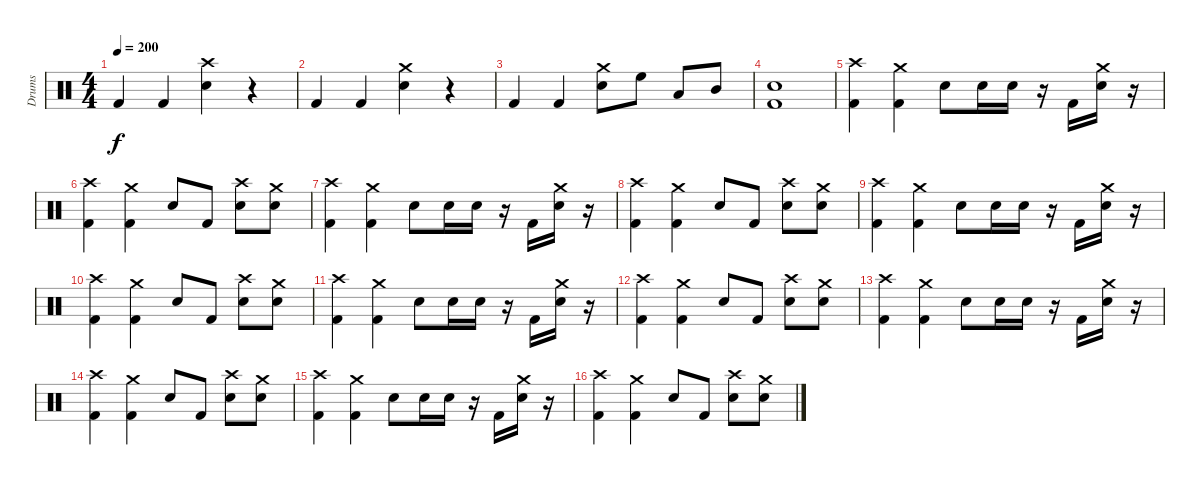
\track ("Drums" "Drums") {instrument percussion}
\staff {score}
\articulation defaults
\ts (4 4)
\tempo 200
\clef neutral
\ks c "Kick (hit) 2".4{dy f} "Kick (hit) 2".4
("Electric Snare (hit)" "Crash high (hit)").4 r.4 |
"Kick (hit) 2".4 "Kick (hit) 2".4 ("Electric Snare (hit)" "Crash medium (hit)").4 r.4 |
"Kick (hit) 2".4 "Kick (hit) 2".4 ("Electric Snare (hit)" "Crash medium (hit)").8 "High Floor Tom (hit)".8 "Low Tom (hit)".8 "Mid Tom (hit)".8 |
("Electric Snare (hit)" "Kick (hit) 2").1 |
("Crash high (hit)" "Kick (hit) 2").4 ("Crash medium (hit)" "Kick (hit) 2").4 "Electric Snare (hit)".8 "Electric Snare (hit)".16 "Electric Snare (hit)".16 r.16 "Kick (hit) 2".16 ("Electric Snare (hit)" "Crash medium (hit)").16 r.16 |
("Crash high (hit)" "Kick (hit) 2").4 ("Crash medium (hit)" "Kick (hit) 2").4 "Electric Snare (hit)".8 "Kick (hit) 2".8 ("Electric Snare (hit)" "Crash high (hit)").8 ("Electric Snare (hit)" "Crash medium (hit)").8 |
("Crash high (hit)" "Kick (hit) 2").4 ("Crash medium (hit)" "Kick (hit) 2").4 "Electric Snare (hit)".8 "Electric Snare (hit)".16 "Electric Snare (hit)".16 r.16 "Kick (hit) 2".16 ("Electric Snare (hit)" "Crash medium (hit)").16 r.16 |
("Crash high (hit)" "Kick (hit) 2").4 ("Crash medium (hit)" "Kick (hit) 2").4 "Electric Snare (hit)".8 "Kick (hit) 2".8 ("Electric Snare (hit)" "Crash high (hit)").8 ("Electric Snare (hit)" "Crash medium (hit)").8 |
("Crash high (hit)" "Kick (hit) 2").4 ("Crash medium (hit)" "Kick (hit) 2").4 "Electric Snare (hit)".8 "Electric Snare (hit)".16 "Electric Snare (hit)".16 r.16 "Kick (hit) 2".16 ("Electric Snare (hit)" "Crash medium (hit)").16 r.16 |
("Crash high (hit)" "Kick (hit) 2").4 ("Crash medium (hit)" "Kick (hit) 2").4 "Electric Snare (hit)".8 "Kick (hit) 2".8 ("Electric Snare (hit)" "Crash high (hit)").8 ("Electric Snare (hit)" "Crash medium (hit)").8 |
("Crash high (hit)" "Kick (hit) 2").4 ("Crash medium (hit)" "Kick (hit) 2").4 "Electric Snare (hit)".8 "Electric Snare (hit)".16 "Electric Snare (hit)".16 r.16 "Kick (hit) 2".16 ("Electric Snare (hit)" "Crash medium (hit)").16 r.16 |
("Crash high (hit)" "Kick (hit) 2").4 ("Crash medium (hit)" "Kick (hit) 2").4 "Electric Snare (hit)".8 "Kick (hit) 2".8 ("Electric Snare (hit)" "Crash high (hit)").8 ("Electric Snare (hit)" "Crash medium (hit)").8 |
("Crash high (hit)" "Kick (hit) 2").4 ("Crash medium (hit)" "Kick (hit) 2").4 "Electric Snare (hit)".8 "Electric Snare (hit)".16 "Electric Snare (hit)".16 r.16 "Kick (hit) 2".16 ("Electric Snare (hit)" "Crash medium (hit)").16 r.16 |
("Crash high (hit)" "Kick (hit) 2").4 ("Crash medium (hit)" "Kick (hit) 2").4 "Electric Snare (hit)".8 "Kick (hit) 2".8 ("Electric Snare (hit)" "Crash high (hit)").8 ("Electric Snare (hit)" "Crash medium (hit)").8 |
("Crash high (hit)" "Kick (hit) 2").4 ("Crash medium (hit)" "Kick (hit) 2").4 "Electric Snare (hit)".8 "Electric Snare (hit)".16 "Electric Snare (hit)".16 r.16 "Kick (hit) 2".16 ("Electric Snare (hit)" "Crash medium (hit)").16 r.16 |
("Crash high (hit)" "Kick (hit) 2").4 ("Crash medium (hit)" "Kick (hit) 2").4 "Electric Snare (hit)".8 "Kick (hit) 2".8 ("Electric Snare (hit)" "Crash high (hit)").8 ("Electric Snare (hit)" "Crash medium (hit)").8
